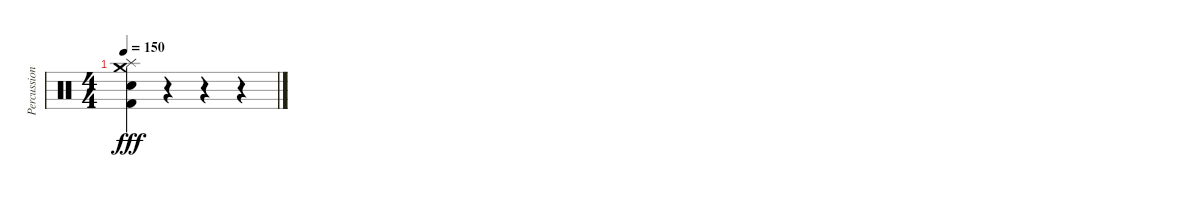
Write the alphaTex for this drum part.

\track ("Percussion" "Percussion") {instrument percussion}
\staff {score}
\articulation defaults
\ts (4 4)
\tempo 150
\clef neutral
\ks c
("Splash (hit)" "Crash medium (hit)" "Electric Snare (hit)" "Kick (hit) 2").4{dy fff} r.4 r.4 r.4
